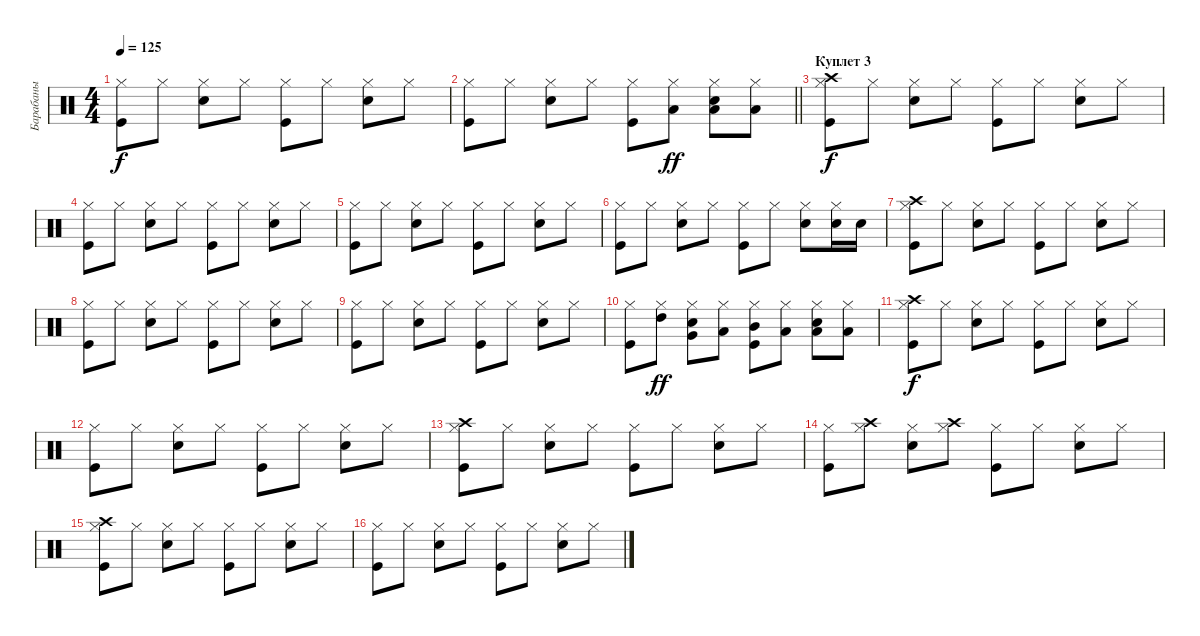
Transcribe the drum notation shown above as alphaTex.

\track ("Барабаны" "Барабаны") {instrument percussion}
\staff {score}
\articulation defaults
\ts (4 4)
\tempo 125
\clef neutral
\ks c
("Kick (hit)" "Hi-Hat (closed)").8{dy f} "Hi-Hat (closed)".8 ("Snare (hit) 2" "Hi-Hat (closed)").8 "Hi-Hat (closed)".8 ("Kick (hit)" "Hi-Hat (closed)").8 "Hi-Hat (closed)".8 ("Snare (hit) 2" "Hi-Hat (closed)").8 "Hi-Hat (closed)".8 |
\barLineRight lightlight
("Kick (hit)" "Hi-Hat (closed)").8 "Hi-Hat (closed)".8 ("Snare (hit) 2" "Hi-Hat (closed)").8 "Hi-Hat (closed)".8 ("Kick (hit)" "Hi-Hat (closed)").8 ("Hi-Hat (closed)" "Low Tom (hit)").8{dy ff} ("Snare (hit) 2" "Hi-Hat (closed)" "Low Tom (hit)").8 ("Hi-Hat (closed)" "Low Tom (hit)").8 |
\section ("" "Куплет 3")
("Kick (hit)" "Hi-Hat (closed)" "Crash high (hit)").8{dy f} "Hi-Hat (closed)".8 ("Snare (hit) 2" "Hi-Hat (closed)").8 "Hi-Hat (closed)".8 ("Kick (hit)" "Hi-Hat (closed)").8 "Hi-Hat (closed)".8 ("Snare (hit) 2" "Hi-Hat (closed)").8 "Hi-Hat (closed)".8 |
("Kick (hit)" "Hi-Hat (closed)").8 "Hi-Hat (closed)".8 ("Snare (hit) 2" "Hi-Hat (closed)").8 "Hi-Hat (closed)".8 ("Kick (hit)" "Hi-Hat (closed)").8 "Hi-Hat (closed)".8 ("Snare (hit) 2" "Hi-Hat (closed)").8 "Hi-Hat (closed)".8 |
("Kick (hit)" "Hi-Hat (closed)").8 "Hi-Hat (closed)".8 ("Snare (hit) 2" "Hi-Hat (closed)").8 "Hi-Hat (closed)".8 ("Kick (hit)" "Hi-Hat (closed)").8 "Hi-Hat (closed)".8 ("Snare (hit) 2" "Hi-Hat (closed)").8 "Hi-Hat (closed)".8 |
("Kick (hit)" "Hi-Hat (closed)").8 "Hi-Hat (closed)".8 ("Snare (hit) 2" "Hi-Hat (closed)").8 "Hi-Hat (closed)".8 ("Kick (hit)" "Hi-Hat (closed)").8 "Hi-Hat (closed)".8 ("Snare (hit) 2" "Hi-Hat (closed)").8 ("Hi-Hat (closed)" "Snare (hit) 2").16 "Snare (hit) 2".16 |
("Kick (hit)" "Hi-Hat (closed)" "Crash high (hit)").8 "Hi-Hat (closed)".8 ("Snare (hit) 2" "Hi-Hat (closed)").8 "Hi-Hat (closed)".8 ("Kick (hit)" "Hi-Hat (closed)").8 "Hi-Hat (closed)".8 ("Snare (hit) 2" "Hi-Hat (closed)").8 "Hi-Hat (closed)".8 |
("Kick (hit)" "Hi-Hat (closed)").8 "Hi-Hat (closed)".8 ("Snare (hit) 2" "Hi-Hat (closed)").8 "Hi-Hat (closed)".8 ("Kick (hit)" "Hi-Hat (closed)").8 "Hi-Hat (closed)".8 ("Snare (hit) 2" "Hi-Hat (closed)").8 "Hi-Hat (closed)".8 |
("Kick (hit)" "Hi-Hat (closed)").8 "Hi-Hat (closed)".8 ("Snare (hit) 2" "Hi-Hat (closed)").8 "Hi-Hat (closed)".8 ("Kick (hit)" "Hi-Hat (closed)").8 "Hi-Hat (closed)".8 ("Snare (hit) 2" "Hi-Hat (closed)").8 "Hi-Hat (closed)".8 |
("Kick (hit)" "Hi-Hat (closed)").8 ("Hi-Hat (closed)" "High Tom (hit)").8{dy ff} ("Snare (hit) 2" "Hi-Hat (closed)" "Very Low Tom (hit)").8 ("Hi-Hat (closed)" "Low Tom (hit)").8 ("Kick (hit)" "Hi-Hat (closed)" "Mid Tom (hit)").8 ("Hi-Hat (closed)" "Low Tom (hit)").8 ("Snare (hit) 2" "Hi-Hat (closed)" "Low Tom (hit)").8 ("Hi-Hat (closed)" "Low Tom (hit)").8 |
("Kick (hit)" "Hi-Hat (closed)" "Crash high (hit)").8{dy f} "Hi-Hat (closed)".8 ("Snare (hit) 2" "Hi-Hat (closed)").8 "Hi-Hat (closed)".8 ("Kick (hit)" "Hi-Hat (closed)").8 "Hi-Hat (closed)".8 ("Snare (hit) 2" "Hi-Hat (closed)").8 "Hi-Hat (closed)".8 |
("Kick (hit)" "Hi-Hat (closed)").8 "Hi-Hat (closed)".8 ("Snare (hit) 2" "Hi-Hat (closed)").8 "Hi-Hat (closed)".8 ("Kick (hit)" "Hi-Hat (closed)").8 "Hi-Hat (closed)".8 ("Snare (hit) 2" "Hi-Hat (closed)").8 "Hi-Hat (closed)".8 |
("Kick (hit)" "Hi-Hat (closed)" "Crash high (hit)").8 "Hi-Hat (closed)".8 ("Snare (hit) 2" "Hi-Hat (closed)").8 "Hi-Hat (closed)".8 ("Kick (hit)" "Hi-Hat (closed)").8 "Hi-Hat (closed)".8 ("Snare (hit) 2" "Hi-Hat (closed)").8 "Hi-Hat (closed)".8 |
("Kick (hit)" "Hi-Hat (closed)").8 ("Hi-Hat (closed)" "Crash high (hit)").8 ("Snare (hit) 2" "Hi-Hat (closed)").8 ("Hi-Hat (closed)" "Crash high (hit)").8 ("Kick (hit)" "Hi-Hat (closed)").8 "Hi-Hat (closed)".8 ("Snare (hit) 2" "Hi-Hat (closed)").8 "Hi-Hat (closed)".8 |
("Kick (hit)" "Hi-Hat (closed)" "Crash high (hit)").8 "Hi-Hat (closed)".8 ("Snare (hit) 2" "Hi-Hat (closed)").8 "Hi-Hat (closed)".8 ("Kick (hit)" "Hi-Hat (closed)").8 "Hi-Hat (closed)".8 ("Snare (hit) 2" "Hi-Hat (closed)").8 "Hi-Hat (closed)".8 |
("Kick (hit)" "Hi-Hat (closed)").8 "Hi-Hat (closed)".8 ("Snare (hit) 2" "Hi-Hat (closed)").8 "Hi-Hat (closed)".8 ("Kick (hit)" "Hi-Hat (closed)").8 "Hi-Hat (closed)".8 ("Snare (hit) 2" "Hi-Hat (closed)").8 "Hi-Hat (closed)".8
